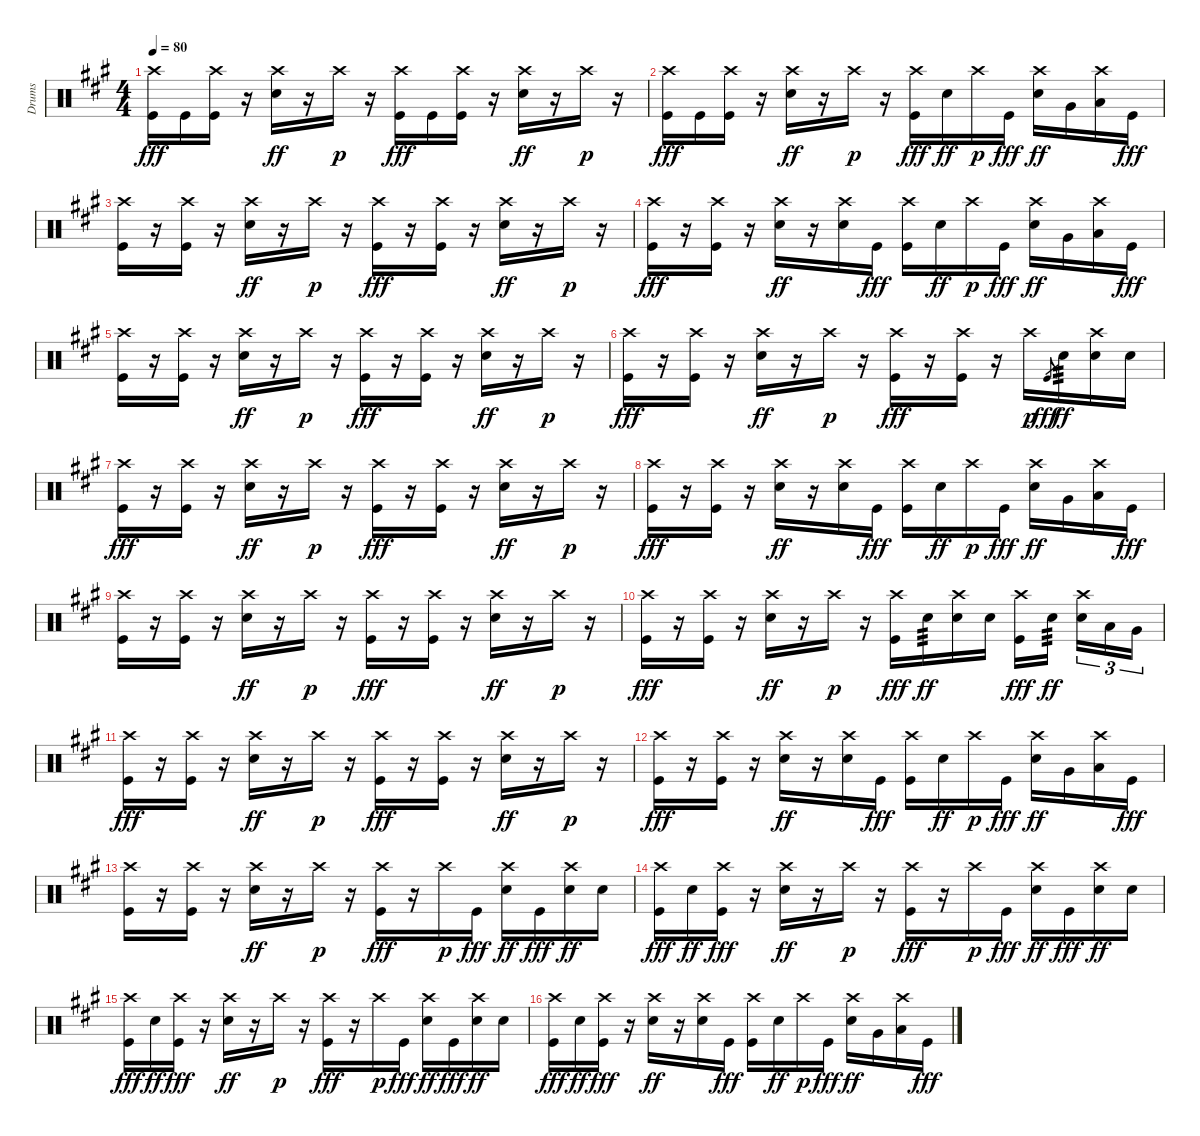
\track ("Drums" "Drums") {instrument percussion}
\staff {score}
\articulation defaults
\ts (4 4)
\tempo 80
\clef neutral
\ks f#minor
("Crash high (hit)" "Kick (hit)").16{dy fff} "Kick (hit)".16 ("Crash high (hit)" "Kick (hit)").16 r.16 ("Crash high (hit)" "Snare (hit) 2").16{dy ff} r.16 "Crash high (hit)".16{dy p} r.16 ("Crash high (hit)" "Kick (hit)").16{dy fff} "Kick (hit)".16 ("Crash high (hit)" "Kick (hit)").16 r.16 ("Crash high (hit)" "Snare (hit) 2").16{dy ff} r.16 "Crash high (hit)".16{dy p} r.16 |
("Crash high (hit)" "Kick (hit)").16{dy fff} "Kick (hit)".16 ("Crash high (hit)" "Kick (hit)").16 r.16 ("Crash high (hit)" "Snare (hit) 2").16{dy ff} r.16 "Crash high (hit)".16{dy p} r.16 ("Crash high (hit)" "Kick (hit)").16{dy fff} "Snare (hit) 2".16{dy ff} "Crash high (hit)".16{dy p} "Kick (hit)".16{dy fff} ("Crash high (hit)" "Snare (hit) 2").16{dy ff} "Very Low Tom (hit)".16 ("Crash high (hit)" "Low Floor Tom (hit)").16 "Kick (hit)".16{dy fff} |
("Crash high (hit)" "Kick (hit)").16 r.16 ("Crash high (hit)" "Kick (hit)").16 r.16 ("Crash high (hit)" "Snare (hit) 2").16{dy ff} r.16 "Crash high (hit)".16{dy p} r.16 ("Crash high (hit)" "Kick (hit)").16{dy fff} r.16 ("Crash high (hit)" "Kick (hit)").16 r.16 ("Crash high (hit)" "Snare (hit) 2").16{dy ff} r.16 "Crash high (hit)".16{dy p} r.16 |
("Crash high (hit)" "Kick (hit)").16{dy fff} r.16 ("Crash high (hit)" "Kick (hit)").16 r.16 ("Crash high (hit)" "Snare (hit) 2").16{dy ff} r.16 ("Crash high (hit)" "Snare (hit) 2").16 "Kick (hit)".16{dy fff} ("Crash high (hit)" "Kick (hit)").16 "Snare (hit) 2".16{dy ff} "Crash high (hit)".16{dy p} "Kick (hit)".16{dy fff} ("Crash high (hit)" "Snare (hit) 2").16{dy ff} "Very Low Tom (hit)".16 ("Crash high (hit)" "Low Floor Tom (hit)").16 "Kick (hit)".16{dy fff} |
\ks a
("Crash high (hit)" "Kick (hit)").16 r.16 ("Crash high (hit)" "Kick (hit)").16 r.16 ("Crash high (hit)" "Snare (hit) 2").16{dy ff} r.16 "Crash high (hit)".16{dy p} r.16 ("Crash high (hit)" "Kick (hit)").16{dy fff} r.16 ("Crash high (hit)" "Kick (hit)").16 r.16 ("Crash high (hit)" "Snare (hit) 2").16{dy ff} r.16 "Crash high (hit)".16{dy p} r.16 |
("Crash high (hit)" "Kick (hit)").16{dy fff} r.16 ("Crash high (hit)" "Kick (hit)").16 r.16 ("Crash high (hit)" "Snare (hit) 2").16{dy ff} r.16 "Crash high (hit)".16{dy p} r.16 ("Crash high (hit)" "Kick (hit)").16{dy fff} r.16 ("Crash high (hit)" "Kick (hit)").16 r.16 "Crash high (hit)".16{dy p} "Kick (hit)".8{gr dy fff} "Snare (hit) 2".16{tp 3 dy ff} ("Crash high (hit)" "Snare (hit) 2").16 "Snare (hit) 2".16 |
\ks f#minor
("Crash high (hit)" "Kick (hit)").16{dy fff} r.16 ("Crash high (hit)" "Kick (hit)").16 r.16 ("Crash high (hit)" "Snare (hit) 2").16{dy ff} r.16 "Crash high (hit)".16{dy p} r.16 ("Crash high (hit)" "Kick (hit)").16{dy fff} r.16 ("Crash high (hit)" "Kick (hit)").16 r.16 ("Crash high (hit)" "Snare (hit) 2").16{dy ff} r.16 "Crash high (hit)".16{dy p} r.16 |
("Crash high (hit)" "Kick (hit)").16{dy fff} r.16 ("Crash high (hit)" "Kick (hit)").16 r.16 ("Crash high (hit)" "Snare (hit) 2").16{dy ff} r.16 ("Crash high (hit)" "Snare (hit) 2").16 "Kick (hit)".16{dy fff} ("Crash high (hit)" "Kick (hit)").16 "Snare (hit) 2".16{dy ff} "Crash high (hit)".16{dy p} "Kick (hit)".16{dy fff} ("Crash high (hit)" "Snare (hit) 2").16{dy ff} "Very Low Tom (hit)".16 ("Crash high (hit)" "Low Floor Tom (hit)").16 "Kick (hit)".16{dy fff} |
\ks a
("Crash high (hit)" "Kick (hit)").16 r.16 ("Crash high (hit)" "Kick (hit)").16 r.16 ("Crash high (hit)" "Snare (hit) 2").16{dy ff} r.16 "Crash high (hit)".16{dy p} r.16 ("Crash high (hit)" "Kick (hit)").16{dy fff} r.16 ("Crash high (hit)" "Kick (hit)").16 r.16 ("Crash high (hit)" "Snare (hit) 2").16{dy ff} r.16 "Crash high (hit)".16{dy p} r.16 |
("Crash high (hit)" "Kick (hit)").16{dy fff} r.16 ("Crash high (hit)" "Kick (hit)").16 r.16 ("Crash high (hit)" "Snare (hit) 2").16{dy ff} r.16 "Crash high (hit)".16{dy p} r.16 ("Crash high (hit)" "Kick (hit)").16{dy fff} "Snare (hit) 2".16{tp 3 dy ff} ("Crash high (hit)" "Snare (hit) 2").16 "Snare (hit) 2".16 ("Crash high (hit)" "Kick (hit)").16{dy fff} "Snare (hit) 2".16{tp 3 dy ff beam splitsecondary} ("Crash high (hit)" "Snare (hit) 2").16{tu (3 2)} "Low Tom (hit)".16{tu (3 2)} "Very Low Tom (hit)".16{tu (3 2)} |
\ks f#minor
("Crash high (hit)" "Kick (hit)").16{dy fff} r.16 ("Crash high (hit)" "Kick (hit)").16 r.16 ("Crash high (hit)" "Snare (hit) 2").16{dy ff} r.16 "Crash high (hit)".16{dy p} r.16 ("Crash high (hit)" "Kick (hit)").16{dy fff} r.16 ("Crash high (hit)" "Kick (hit)").16 r.16 ("Crash high (hit)" "Snare (hit) 2").16{dy ff} r.16 "Crash high (hit)".16{dy p} r.16 |
("Crash high (hit)" "Kick (hit)").16{dy fff} r.16 ("Crash high (hit)" "Kick (hit)").16 r.16 ("Crash high (hit)" "Snare (hit) 2").16{dy ff} r.16 ("Crash high (hit)" "Snare (hit) 2").16 "Kick (hit)".16{dy fff} ("Crash high (hit)" "Kick (hit)").16 "Snare (hit) 2".16{dy ff} "Crash high (hit)".16{dy p} "Kick (hit)".16{dy fff} ("Crash high (hit)" "Snare (hit) 2").16{dy ff} "Very Low Tom (hit)".16 ("Crash high (hit)" "Low Floor Tom (hit)").16 "Kick (hit)".16{dy fff} |
("Crash high (hit)" "Kick (hit)").16 r.16 ("Crash high (hit)" "Kick (hit)").16 r.16 ("Crash high (hit)" "Snare (hit) 2").16{dy ff} r.16 "Crash high (hit)".16{dy p} r.16 ("Crash high (hit)" "Kick (hit)").16{dy fff} r.16 "Crash high (hit)".16{dy p} "Kick (hit)".16{dy fff} ("Crash high (hit)" "Snare (hit) 2").16{dy ff} "Kick (hit)".16{dy fff} ("Crash high (hit)" "Snare (hit) 2").16{dy ff} "Snare (hit) 2".16 |
("Crash high (hit)" "Kick (hit)").16{dy fff} "Snare (hit) 2".16{dy ff} ("Crash high (hit)" "Kick (hit)").16{dy fff} r.16 ("Crash high (hit)" "Snare (hit) 2").16{dy ff} r.16 "Crash high (hit)".16{dy p} r.16 ("Crash high (hit)" "Kick (hit)").16{dy fff} r.16 "Crash high (hit)".16{dy p} "Kick (hit)".16{dy fff} ("Crash high (hit)" "Snare (hit) 2").16{dy ff} "Kick (hit)".16{dy fff} ("Crash high (hit)" "Snare (hit) 2").16{dy ff} "Snare (hit) 2".16 |
("Crash high (hit)" "Kick (hit)").16{dy fff} "Snare (hit) 2".16{dy ff} ("Crash high (hit)" "Kick (hit)").16{dy fff} r.16 ("Crash high (hit)" "Snare (hit) 2").16{dy ff} r.16 "Crash high (hit)".16{dy p} r.16 ("Crash high (hit)" "Kick (hit)").16{dy fff} r.16 "Crash high (hit)".16{dy p} "Kick (hit)".16{dy fff} ("Crash high (hit)" "Snare (hit) 2").16{dy ff} "Kick (hit)".16{dy fff} ("Crash high (hit)" "Snare (hit) 2").16{dy ff} "Snare (hit) 2".16 |
("Crash high (hit)" "Kick (hit)").16{dy fff} "Snare (hit) 2".16{dy ff} ("Crash high (hit)" "Kick (hit)").16{dy fff} r.16 ("Crash high (hit)" "Snare (hit) 2").16{dy ff} r.16 ("Crash high (hit)" "Snare (hit) 2").16 "Kick (hit)".16{dy fff} ("Crash high (hit)" "Kick (hit)").16 "Snare (hit) 2".16{dy ff} "Crash high (hit)".16{dy p} "Kick (hit)".16{dy fff} ("Crash high (hit)" "Snare (hit) 2").16{dy ff} "Very Low Tom (hit)".16 ("Crash high (hit)" "Low Floor Tom (hit)").16 "Kick (hit)".16{dy fff}
